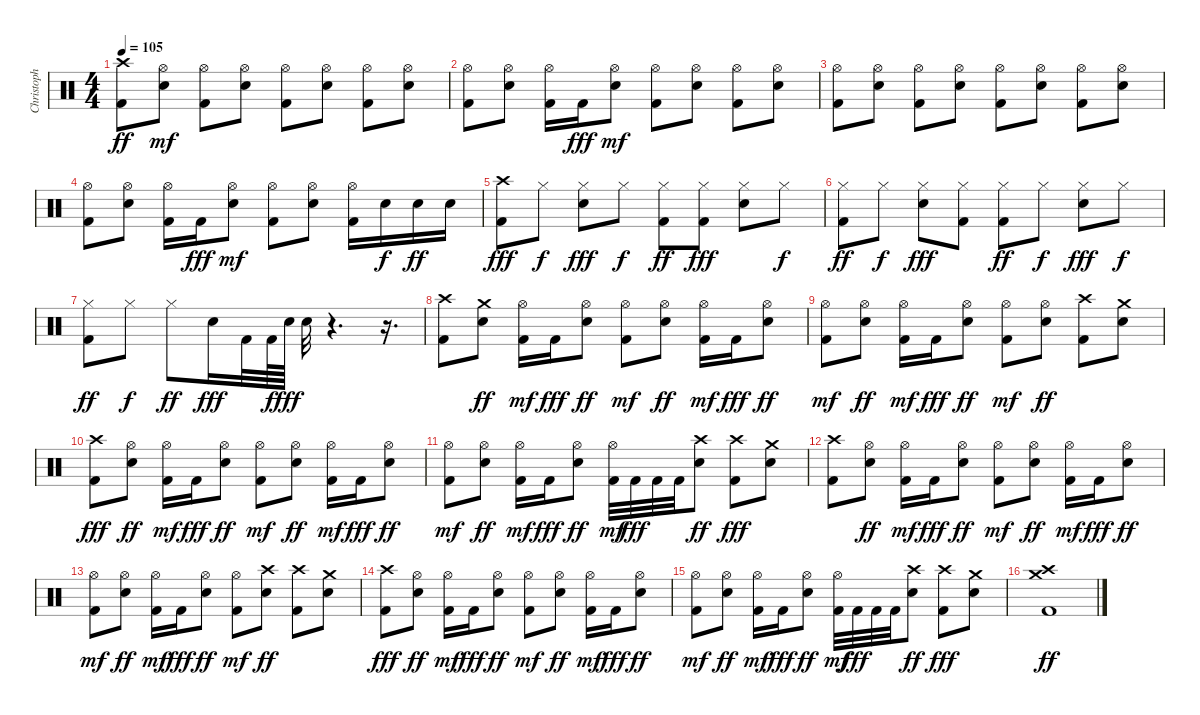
\track ("Christoph \"Doom\" Schneider" "Christoph ") {instrument percussion}
\staff {score}
\articulation defaults
\ts (4 4)
\tempo 105
\clef neutral
\ks c
("Kick (hit) 2" "Crash high (hit)").8{dy ff} ("Hi-Hat (open)" "Electric Snare (hit)").8{dy mf} ("Kick (hit) 2" "Hi-Hat (open)").8 ("Hi-Hat (open)" "Electric Snare (hit)").8 ("Kick (hit) 2" "Hi-Hat (open)").8 ("Hi-Hat (open)" "Electric Snare (hit)").8 ("Kick (hit) 2" "Hi-Hat (open)").8 ("Hi-Hat (open)" "Electric Snare (hit)").8 |
("Kick (hit) 2" "Hi-Hat (open)").8 ("Hi-Hat (open)" "Electric Snare (hit)").8 ("Kick (hit) 2" "Hi-Hat (open)").16 "Kick (hit) 2".16{dy fff} ("Hi-Hat (open)" "Electric Snare (hit)").8{dy mf} ("Kick (hit) 2" "Hi-Hat (open)").8 ("Hi-Hat (open)" "Electric Snare (hit)").8 ("Kick (hit) 2" "Hi-Hat (open)").8 ("Hi-Hat (open)" "Electric Snare (hit)").8 |
("Kick (hit) 2" "Hi-Hat (open)").8 ("Hi-Hat (open)" "Electric Snare (hit)").8 ("Kick (hit) 2" "Hi-Hat (open)").8 ("Hi-Hat (open)" "Electric Snare (hit)").8 ("Kick (hit) 2" "Hi-Hat (open)").8 ("Hi-Hat (open)" "Electric Snare (hit)").8 ("Kick (hit) 2" "Hi-Hat (open)").8 ("Hi-Hat (open)" "Electric Snare (hit)").8 |
("Kick (hit) 2" "Hi-Hat (open)").8 ("Hi-Hat (open)" "Electric Snare (hit)").8 ("Kick (hit) 2" "Hi-Hat (open)").16 "Kick (hit) 2".16{dy fff} ("Hi-Hat (open)" "Electric Snare (hit)").8{dy mf} ("Kick (hit) 2" "Hi-Hat (open)").8 ("Hi-Hat (open)" "Electric Snare (hit)").8 ("Kick (hit) 2" "Hi-Hat (open)").16 "Electric Snare (hit)".16{dy f} "Electric Snare (hit)".16{dy ff} "Electric Snare (hit)".16 |
("Kick (hit) 2" "Crash high (hit)").8{dy fff} "Hi-Hat (closed)".8{dy f} ("Hi-Hat (closed)" "Electric Snare (hit)").8{dy fff} "Hi-Hat (closed)".8{dy f} ("Kick (hit) 2" "Hi-Hat (closed)").8{dy ff} ("Kick (hit) 2" "Hi-Hat (closed)").8{dy fff} ("Hi-Hat (closed)" "Electric Snare (hit)").8 "Hi-Hat (closed)".8{dy f} |
("Kick (hit) 2" "Hi-Hat (closed)").8{dy ff} "Hi-Hat (closed)".8{dy f} ("Hi-Hat (closed)" "Electric Snare (hit)").8{dy fff} ("Kick (hit) 2" "Hi-Hat (closed)").8 ("Kick (hit) 2" "Hi-Hat (closed)").8{dy ff} "Hi-Hat (closed)".8{dy f} ("Hi-Hat (closed)" "Electric Snare (hit)").8{dy fff} "Hi-Hat (closed)".8{dy f} |
("Kick (hit) 2" "Hi-Hat (closed)").8{dy ff} "Hi-Hat (closed)".8{dy f} "Hi-Hat (closed)".8{dy ff} "Electric Snare (hit)".16{dy fff} "Kick (hit) 2".32 "Kick (hit) 2".64{dy f} "Electric Snare (hit)".64{dy fff} "Electric Snare (hit)".32 r.4{d} r.16{d} |
("Kick (hit) 2" "Crash high (hit)").8 ("Electric Snare (hit)" "Crash medium (hit)").8{dy ff} ("Kick (hit) 2" "Hi-Hat (open)").16{dy mf} "Kick (hit) 2".16{dy fff} ("Hi-Hat (open)" "Electric Snare (hit)").8{dy ff} ("Kick (hit) 2" "Hi-Hat (open)").8{dy mf} ("Hi-Hat (open)" "Electric Snare (hit)").8{dy ff} ("Kick (hit) 2" "Hi-Hat (open)").16{dy mf} "Kick (hit) 2".16{dy fff} ("Hi-Hat (open)" "Electric Snare (hit)").8{dy ff} |
("Kick (hit) 2" "Hi-Hat (open)").8{dy mf} ("Hi-Hat (open)" "Electric Snare (hit)").8{dy ff} ("Kick (hit) 2" "Hi-Hat (open)").16{dy mf} "Kick (hit) 2".16{dy fff} ("Hi-Hat (open)" "Electric Snare (hit)").8{dy ff} ("Kick (hit) 2" "Hi-Hat (open)").8{dy mf} ("Hi-Hat (open)" "Electric Snare (hit)").8{dy ff} ("Kick (hit) 2" "Crash high (hit)").8 ("Electric Snare (hit)" "Crash medium (hit)").8 |
("Kick (hit) 2" "Crash high (hit)").8{dy fff} ("Hi-Hat (open)" "Electric Snare (hit)").8{dy ff} ("Kick (hit) 2" "Hi-Hat (open)").16{dy mf} "Kick (hit) 2".16{dy fff} ("Hi-Hat (open)" "Electric Snare (hit)").8{dy ff} ("Kick (hit) 2" "Hi-Hat (open)").8{dy mf} ("Hi-Hat (open)" "Electric Snare (hit)").8{dy ff} ("Kick (hit) 2" "Hi-Hat (open)").16{dy mf} "Kick (hit) 2".16{dy fff} ("Hi-Hat (open)" "Electric Snare (hit)").8{dy ff} |
("Kick (hit) 2" "Hi-Hat (open)").8{dy mf} ("Hi-Hat (open)" "Electric Snare (hit)").8{dy ff} ("Kick (hit) 2" "Hi-Hat (open)").16{dy mf} "Kick (hit) 2".16{dy fff} ("Hi-Hat (open)" "Electric Snare (hit)").8{dy ff} ("Kick (hit) 2" "Hi-Hat (open)").32{dy mf} "Kick (hit) 2".32{dy fff} "Kick (hit) 2".32 "Kick (hit) 2".32 ("Crash high (hit)" "Electric Snare (hit)").8{dy ff} ("Kick (hit) 2" "Crash high (hit)").8{dy fff} ("Electric Snare (hit)" "Crash medium (hit)").8 |
("Kick (hit) 2" "Crash high (hit)").8 ("Hi-Hat (open)" "Electric Snare (hit)").8{dy ff} ("Kick (hit) 2" "Hi-Hat (open)").16{dy mf} "Kick (hit) 2".16{dy fff} ("Hi-Hat (open)" "Electric Snare (hit)").8{dy ff} ("Kick (hit) 2" "Hi-Hat (open)").8{dy mf} ("Hi-Hat (open)" "Electric Snare (hit)").8{dy ff} ("Kick (hit) 2" "Hi-Hat (open)").16{dy mf} "Kick (hit) 2".16{dy fff} ("Hi-Hat (open)" "Electric Snare (hit)").8{dy ff} |
("Kick (hit) 2" "Hi-Hat (open)").8{dy mf} ("Hi-Hat (open)" "Electric Snare (hit)").8{dy ff} ("Kick (hit) 2" "Hi-Hat (open)").16{dy mf} "Kick (hit) 2".16{dy fff} ("Hi-Hat (open)" "Electric Snare (hit)").8{dy ff} ("Kick (hit) 2" "Hi-Hat (open)").8{dy mf} ("Crash high (hit)" "Electric Snare (hit)").8{dy ff} ("Kick (hit) 2" "Crash high (hit)").8 ("Electric Snare (hit)" "Crash medium (hit)").8 |
("Kick (hit) 2" "Crash high (hit)").8{dy fff} ("Hi-Hat (open)" "Electric Snare (hit)").8{dy ff} ("Kick (hit) 2" "Hi-Hat (open)").16{dy mf} "Kick (hit) 2".16{dy fff} ("Hi-Hat (open)" "Electric Snare (hit)").8{dy ff} ("Kick (hit) 2" "Hi-Hat (open)").8{dy mf} ("Hi-Hat (open)" "Electric Snare (hit)").8{dy ff} ("Kick (hit) 2" "Hi-Hat (open)").16{dy mf} "Kick (hit) 2".16{dy fff} ("Hi-Hat (open)" "Electric Snare (hit)").8{dy ff} |
("Kick (hit) 2" "Hi-Hat (open)").8{dy mf} ("Hi-Hat (open)" "Electric Snare (hit)").8{dy ff} ("Kick (hit) 2" "Hi-Hat (open)").16{dy mf} "Kick (hit) 2".16{dy fff} ("Hi-Hat (open)" "Electric Snare (hit)").8{dy ff} ("Kick (hit) 2" "Hi-Hat (open)").32{dy mf} "Kick (hit) 2".32{dy fff} "Kick (hit) 2".32 "Kick (hit) 2".32 ("Crash high (hit)" "Electric Snare (hit)").8{dy ff} ("Kick (hit) 2" "Crash high (hit)").8{dy fff} ("Electric Snare (hit)" "Crash medium (hit)").8 |
("Kick (hit) 2" "Crash medium (hit)" "Crash high (hit)").1{dy ff}
